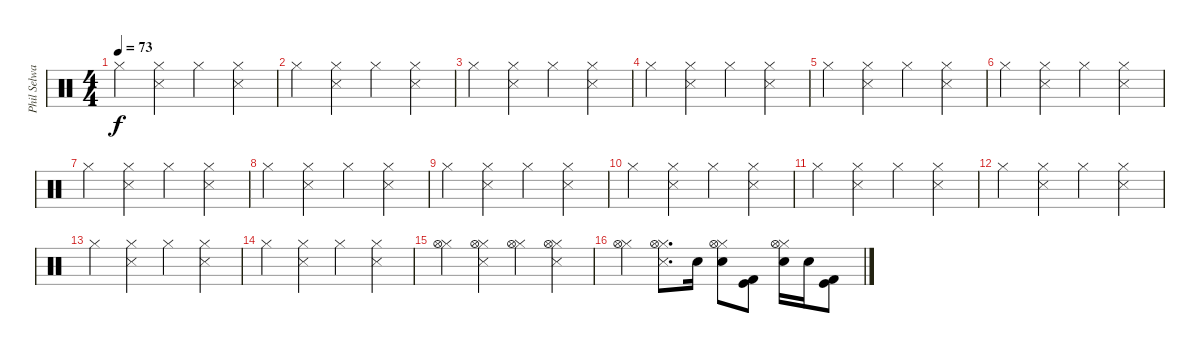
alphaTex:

\track ("Phil Selway - Drums" "Phil Selwa") {instrument percussion}
\staff {score}
\articulation defaults
\ts (4 4)
\tempo 73
\clef neutral
\ks c "Hi-Hat (closed)".4{dy f}
("Snare (side stick) 3" "Hi-Hat (closed)").4 "Hi-Hat (closed)".4 ("Hi-Hat (closed)" "Snare (side stick) 3").4 |
"Hi-Hat (closed)".4 ("Snare (side stick) 3" "Hi-Hat (closed)").4 "Hi-Hat (closed)".4 ("Hi-Hat (closed)" "Snare (side stick) 3").4 |
"Hi-Hat (closed)".4 ("Snare (side stick) 3" "Hi-Hat (closed)").4 "Hi-Hat (closed)".4 ("Hi-Hat (closed)" "Snare (side stick) 3").4 |
"Hi-Hat (closed)".4 ("Snare (side stick) 3" "Hi-Hat (closed)").4 "Hi-Hat (closed)".4 ("Hi-Hat (closed)" "Snare (side stick) 3").4 |
"Hi-Hat (closed)".4 ("Snare (side stick) 3" "Hi-Hat (closed)").4 "Hi-Hat (closed)".4 ("Hi-Hat (closed)" "Snare (side stick) 3").4 |
"Hi-Hat (closed)".4 ("Snare (side stick) 3" "Hi-Hat (closed)").4 "Hi-Hat (closed)".4 ("Hi-Hat (closed)" "Snare (side stick) 3").4 |
"Hi-Hat (closed)".4 ("Snare (side stick) 3" "Hi-Hat (closed)").4 "Hi-Hat (closed)".4 ("Hi-Hat (closed)" "Snare (side stick) 3").4 |
"Hi-Hat (closed)".4 ("Snare (side stick) 3" "Hi-Hat (closed)").4 "Hi-Hat (closed)".4 ("Hi-Hat (closed)" "Snare (side stick) 3").4 |
"Hi-Hat (closed)".4 ("Snare (side stick) 3" "Hi-Hat (closed)").4 "Hi-Hat (closed)".4 ("Hi-Hat (closed)" "Snare (side stick) 3").4 |
"Hi-Hat (closed)".4 ("Snare (side stick) 3" "Hi-Hat (closed)").4 "Hi-Hat (closed)".4 ("Hi-Hat (closed)" "Snare (side stick) 3").4 |
"Hi-Hat (closed)".4 ("Snare (side stick) 3" "Hi-Hat (closed)").4 "Hi-Hat (closed)".4 ("Hi-Hat (closed)" "Snare (side stick) 3").4 |
"Hi-Hat (closed)".4 ("Snare (side stick) 3" "Hi-Hat (closed)").4 "Hi-Hat (closed)".4 ("Hi-Hat (closed)" "Snare (side stick) 3").4 |
"Hi-Hat (closed)".4 ("Snare (side stick) 3" "Hi-Hat (closed)").4 "Hi-Hat (closed)".4 ("Snare (side stick) 3" "Hi-Hat (closed)").4 |
"Hi-Hat (closed)".4 ("Snare (side stick) 3" "Hi-Hat (closed)").4 "Hi-Hat (closed)".4 ("Snare (side stick) 3" "Hi-Hat (closed)").4 |
("Hi-Hat (closed)" "Hi-Hat (open)").4 ("Snare (side stick) 3" "Hi-Hat (closed)" "Hi-Hat (open)").4 ("Hi-Hat (closed)" "Hi-Hat (open)").4 ("Snare (side stick) 3" "Hi-Hat (closed)" "Hi-Hat (open)").4 |
("Hi-Hat (closed)" "Hi-Hat (open)").4 ("Snare (side stick) 3" "Hi-Hat (closed)" "Hi-Hat (open)").8{d} "Snare (hit) 2".16 ("Hi-Hat (closed)" "Hi-Hat (open)" "Snare (hit) 2").8 ("Kick (hit) 2" "Kick (hit)").8 ("Hi-Hat (closed)" "Hi-Hat (open)" "Snare (hit) 2").16 "Snare (hit) 2".16 ("Kick (hit) 2" "Kick (hit)").8
